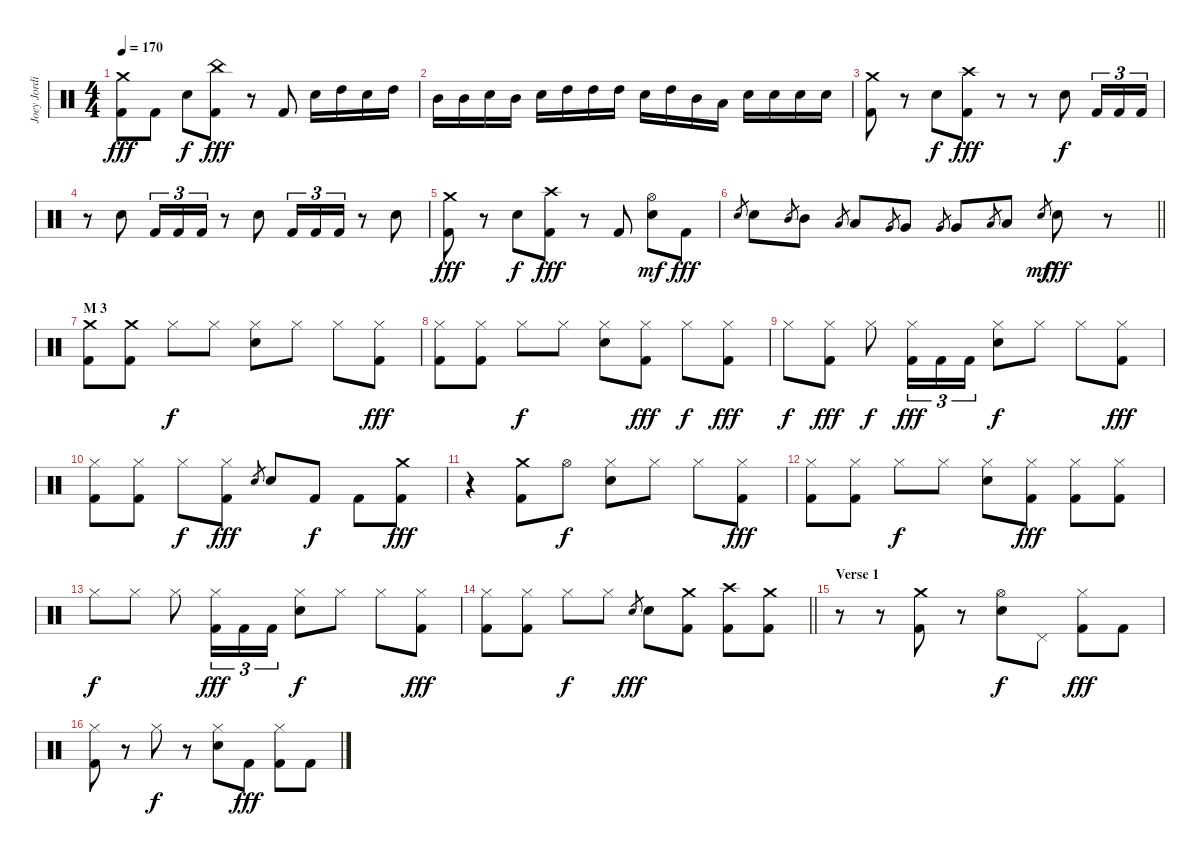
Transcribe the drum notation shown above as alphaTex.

\track ("Joey Jordison" "Joey Jordi") {instrument percussion}
\staff {score}
\articulation defaults
\ts (4 4)
\tempo 170
\clef neutral
\ks c
("Crash medium (hit)" "Kick (hit) 2").8{dy fff} "Kick (hit) 2".8 "Electric Snare (hit)".8{dy f} ("China (hit)" "Kick (hit) 2").8{dy fff} r.8 "Kick (hit) 2".8 "Electric Snare (hit)".16 "High Tom (hit)".16 "Electric Snare (hit)".16 "High Tom (hit)".16 |
"Mid Tom (hit)".16 "Mid Tom (hit)".16 "Electric Snare (hit)".16 "Mid Tom (hit)".16 "Electric Snare (hit)".16 "High Tom (hit)".16 "High Tom (hit)".16 "High Tom (hit)".16 "Electric Snare (hit)".16 "High Tom (hit)".16 "Mid Tom (hit)".16 "Low Tom (hit)".16 "Electric Snare (hit)".16 "Electric Snare (hit)".16 "Electric Snare (hit)".16 "Electric Snare (hit)".16 |
("Crash medium (hit)" "Kick (hit) 2").8 r.8 "Electric Snare (hit)".8{dy f} ("Crash high (hit)" "Kick (hit) 2").8{dy fff} r.8 r.8 "Electric Snare (hit)".8{dy f} "Kick (hit) 2".16{tu (3 2)} "Kick (hit) 2".16{tu (3 2)} "Kick (hit) 2".16{tu (3 2)} |
r.8 "Electric Snare (hit)".8 "Kick (hit) 2".16{tu (3 2)} "Kick (hit) 2".16{tu (3 2)} "Kick (hit) 2".16{tu (3 2)} r.8 "Electric Snare (hit)".8 "Kick (hit) 2".16{tu (3 2)} "Kick (hit) 2".16{tu (3 2)} "Kick (hit) 2".16{tu (3 2)} r.8 "Electric Snare (hit)".8 |
("Crash medium (hit)" "Kick (hit) 2").8{dy fff} r.8 "Electric Snare (hit)".8{dy f} ("Crash high (hit)" "Kick (hit) 2").8{dy fff} r.8 "Kick (hit) 2".8 ("Hi-Hat (open)" "Electric Snare (hit)").8{dy mf} "Kick (hit) 2".8{dy fff} |
\barLineRight lightlight "Electric Snare (hit)".8{gr} "Electric Snare (hit)".8 "Mid Tom (hit)".8{gr} "Mid Tom (hit)".8 "Low Tom (hit)".8{gr} "Low Tom (hit)".8 "Very Low Tom (hit)".8{gr} "Very Low Tom (hit)".8 "Very Low Tom (hit)".8{gr} "Very Low Tom (hit)".8 "Low Floor Tom (hit)".8{gr} "Low Floor Tom (hit)".8 "Electric Snare (hit)".8{gr dy mf} "Electric Snare (hit)".8{dy fff}
r.8 |
\section ("" "M 3")
("Crash medium (hit)" "Kick (hit) 2").8 ("Crash medium (hit)" "Kick (hit) 2").8 "Hi-Hat (closed)".8{dy f} "Hi-Hat (closed)".8 ("Hi-Hat (closed)" "Electric Snare (hit)").8 "Hi-Hat (closed)".8 "Hi-Hat (closed)".8 ("Hi-Hat (closed)" "Kick (hit) 2").8{dy fff} |
("Hi-Hat (closed)" "Kick (hit) 2").8 ("Hi-Hat (closed)" "Kick (hit) 2").8 "Hi-Hat (closed)".8{dy f} "Hi-Hat (closed)".8 ("Hi-Hat (closed)" "Electric Snare (hit)").8 ("Hi-Hat (closed)" "Kick (hit) 2").8{dy fff} "Hi-Hat (closed)".8{dy f} ("Hi-Hat (closed)" "Kick (hit) 2").8{dy fff} |
"Hi-Hat (closed)".8{dy f} ("Hi-Hat (closed)" "Kick (hit) 2").8{dy fff} "Hi-Hat (closed)".8{dy f} ("Hi-Hat (closed)" "Kick (hit) 2").16{tu (3 2) dy fff} "Kick (hit) 2".16{tu (3 2)} "Kick (hit) 2".16{tu (3 2)} ("Hi-Hat (closed)" "Electric Snare (hit)").8{dy f} "Hi-Hat (closed)".8 "Hi-Hat (closed)".8 ("Hi-Hat (closed)" "Kick (hit) 2").8{dy fff} |
("Hi-Hat (closed)" "Kick (hit) 2").8 ("Hi-Hat (closed)" "Kick (hit) 2").8 "Hi-Hat (closed)".8{dy f} ("Hi-Hat (closed)" "Kick (hit) 2").8{dy fff} "Electric Snare (hit)".8{gr} "Electric Snare (hit)".8 "Kick (hit) 2".8{dy f} "Kick (hit) 2".8 ("Crash medium (hit)" "Kick (hit) 2").8{dy fff} |
r.4 ("Crash medium (hit)" "Kick (hit) 2").8 "Hi-Hat (open)".8{dy f} ("Hi-Hat (closed)" "Electric Snare (hit)").8 "Hi-Hat (closed)".8 "Hi-Hat (closed)".8 ("Hi-Hat (closed)" "Kick (hit) 2").8{dy fff} |
("Hi-Hat (closed)" "Kick (hit) 2").8 ("Hi-Hat (closed)" "Kick (hit) 2").8 "Hi-Hat (closed)".8{dy f} "Hi-Hat (closed)".8 ("Hi-Hat (closed)" "Electric Snare (hit)").8 ("Hi-Hat (closed)" "Kick (hit) 2").8{dy fff} ("Hi-Hat (closed)" "Kick (hit) 2").8 ("Hi-Hat (closed)" "Kick (hit) 2").8 |
"Hi-Hat (closed)".8{dy f} "Hi-Hat (closed)".8 "Hi-Hat (closed)".8 ("Hi-Hat (closed)" "Kick (hit) 2").16{tu (3 2) dy fff} "Kick (hit) 2".16{tu (3 2)} "Kick (hit) 2".16{tu (3 2)} ("Hi-Hat (closed)" "Electric Snare (hit)").8{dy f} "Hi-Hat (closed)".8 "Hi-Hat (closed)".8 ("Hi-Hat (closed)" "Kick (hit) 2").8{dy fff} |
\barLineRight lightlight
("Hi-Hat (closed)" "Kick (hit) 2").8 ("Hi-Hat (closed)" "Kick (hit) 2").8 "Hi-Hat (closed)".8{dy f} "Hi-Hat (closed)".8 "Electric Snare (hit)".8{gr dy fff} "Electric Snare (hit)".8 ("Crash medium (hit)" "Kick (hit) 2").8 ("Crash high (hit)" "Kick (hit) 2").8 ("Crash medium (hit)" "Kick (hit) 2").8 |
\section ("" "Verse 1")
r.8 r.8 ("Crash medium (hit)" "Kick (hit) 2").8 r.8 ("Hi-Hat (open)" "Electric Snare (hit)").8{dy f} "Pedal Hi-Hat (hit)".8 ("Hi-Hat (closed)" "Kick (hit) 2").8{dy fff} "Kick (hit) 2".8 |
("Hi-Hat (closed)" "Kick (hit) 2").8 r.8 "Hi-Hat (closed)".8{dy f} r.8 ("Hi-Hat (closed)" "Electric Snare (hit)").8 "Kick (hit) 2".8{dy fff} ("Hi-Hat (closed)" "Kick (hit) 2").8 "Kick (hit) 2".8
